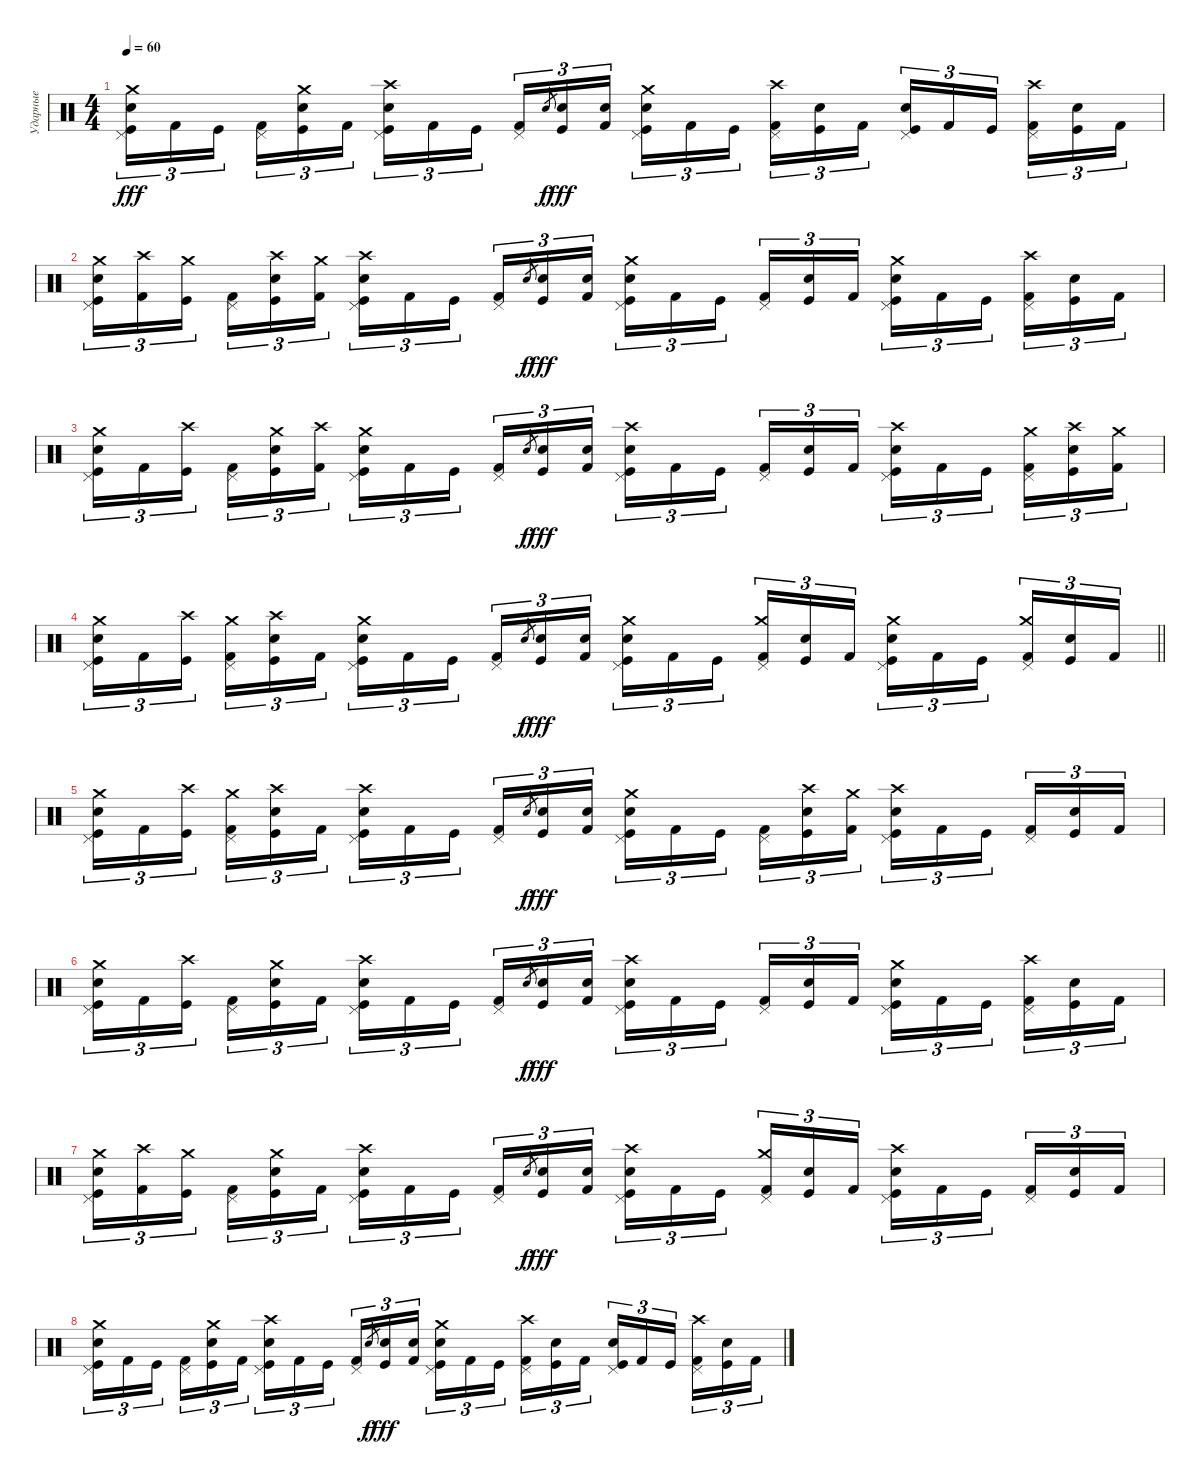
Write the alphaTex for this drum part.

\track ("Ударные" "Ударные") {instrument percussion}
\staff {score}
\articulation defaults
\ts (4 4)
\tempo 60
\clef neutral
\ks c
("Snare (hit) 2" "Kick (hit)" "Pedal Hi-Hat (hit)" "Crash medium (hit)").16{tu (3 2) dy fff} "Kick (hit) 2".16{tu (3 2)} "Kick (hit)".16{tu (3 2) beam splitsecondary} ("Kick (hit) 2" "Pedal Hi-Hat (hit)").16{tu (3 2)} ("Snare (hit) 2" "Kick (hit)" "Crash medium (hit)").16{tu (3 2)} "Kick (hit) 2".16{tu (3 2)} ("Snare (hit) 2" "Kick (hit)" "Pedal Hi-Hat (hit)" "Crash high (hit)").16{tu (3 2)} "Kick (hit) 2".16{tu (3 2)} "Kick (hit)".16{tu (3 2) beam splitsecondary} ("Kick (hit) 2" "Pedal Hi-Hat (hit)").16{tu (3 2)} "Electric Snare (hit)".8{gr dy f} ("Electric Snare (hit)" "Kick (hit)").16{tu (3 2) dy fff} ("Electric Snare (hit)" "Kick (hit) 2").16{tu (3 2)} ("Snare (hit) 2" "Kick (hit)" "Pedal Hi-Hat (hit)" "Crash medium (hit)").16{tu (3 2)} "Kick (hit) 2".16{tu (3 2)} "Kick (hit)".16{tu (3 2) beam splitsecondary} ("Kick (hit) 2" "Pedal Hi-Hat (hit)" "Crash high (hit)").16{tu (3 2)} ("Snare (hit) 2" "Kick (hit)").16{tu (3 2)} "Kick (hit) 2".16{tu (3 2)} ("Snare (hit) 2" "Kick (hit)" "Pedal Hi-Hat (hit)").16{tu (3 2)} "Kick (hit) 2".16{tu (3 2)} "Kick (hit)".16{tu (3 2) beam splitsecondary} ("Kick (hit) 2" "Pedal Hi-Hat (hit)" "Crash high (hit)").16{tu (3 2)} ("Snare (hit) 2" "Kick (hit)").16{tu (3 2)} "Kick (hit) 2".16{tu (3 2)} |
("Snare (hit) 2" "Kick (hit)" "Pedal Hi-Hat (hit)" "Crash medium (hit)").16{tu (3 2)} ("Kick (hit) 2" "Crash high (hit)").16{tu (3 2)} ("Kick (hit)" "Crash medium (hit)").16{tu (3 2) beam splitsecondary} ("Kick (hit) 2" "Pedal Hi-Hat (hit)").16{tu (3 2)} ("Snare (hit) 2" "Kick (hit)" "Crash high (hit)").16{tu (3 2)} ("Kick (hit) 2" "Crash medium (hit)").16{tu (3 2)} ("Snare (hit) 2" "Kick (hit)" "Pedal Hi-Hat (hit)" "Crash high (hit)").16{tu (3 2)} "Kick (hit) 2".16{tu (3 2)} "Kick (hit)".16{tu (3 2) beam splitsecondary} ("Kick (hit) 2" "Pedal Hi-Hat (hit)").16{tu (3 2)} "Electric Snare (hit)".8{gr dy f} ("Electric Snare (hit)" "Kick (hit)").16{tu (3 2) dy fff} ("Electric Snare (hit)" "Kick (hit) 2").16{tu (3 2)} ("Snare (hit) 2" "Kick (hit)" "Pedal Hi-Hat (hit)" "Crash medium (hit)").16{tu (3 2)} "Kick (hit) 2".16{tu (3 2)} "Kick (hit)".16{tu (3 2) beam splitsecondary} ("Kick (hit) 2" "Pedal Hi-Hat (hit)").16{tu (3 2)} ("Snare (hit) 2" "Kick (hit)").16{tu (3 2)} "Kick (hit) 2".16{tu (3 2)} ("Snare (hit) 2" "Kick (hit)" "Pedal Hi-Hat (hit)" "Crash medium (hit)").16{tu (3 2)} "Kick (hit) 2".16{tu (3 2)} "Kick (hit)".16{tu (3 2) beam splitsecondary} ("Kick (hit) 2" "Pedal Hi-Hat (hit)" "Crash high (hit)").16{tu (3 2)} ("Snare (hit) 2" "Kick (hit)").16{tu (3 2)} "Kick (hit) 2".16{tu (3 2)} |
("Snare (hit) 2" "Kick (hit)" "Pedal Hi-Hat (hit)" "Crash medium (hit)").16{tu (3 2)} "Kick (hit) 2".16{tu (3 2)} ("Kick (hit)" "Crash high (hit)").16{tu (3 2) beam splitsecondary} ("Kick (hit) 2" "Pedal Hi-Hat (hit)").16{tu (3 2)} ("Snare (hit) 2" "Kick (hit)" "Crash medium (hit)").16{tu (3 2)} ("Kick (hit) 2" "Crash high (hit)").16{tu (3 2)} ("Snare (hit) 2" "Kick (hit)" "Pedal Hi-Hat (hit)" "Crash medium (hit)").16{tu (3 2)} "Kick (hit) 2".16{tu (3 2)} "Kick (hit)".16{tu (3 2) beam splitsecondary} ("Kick (hit) 2" "Pedal Hi-Hat (hit)").16{tu (3 2)} "Electric Snare (hit)".8{gr dy f} ("Electric Snare (hit)" "Kick (hit)").16{tu (3 2) dy fff} ("Electric Snare (hit)" "Kick (hit) 2").16{tu (3 2)} ("Snare (hit) 2" "Kick (hit)" "Pedal Hi-Hat (hit)" "Crash high (hit)").16{tu (3 2)} "Kick (hit) 2".16{tu (3 2)} "Kick (hit)".16{tu (3 2) beam splitsecondary} ("Kick (hit) 2" "Pedal Hi-Hat (hit)").16{tu (3 2)} ("Snare (hit) 2" "Kick (hit)").16{tu (3 2)} "Kick (hit) 2".16{tu (3 2)} ("Snare (hit) 2" "Kick (hit)" "Pedal Hi-Hat (hit)" "Crash high (hit)").16{tu (3 2)} "Kick (hit) 2".16{tu (3 2)} "Kick (hit)".16{tu (3 2) beam splitsecondary} ("Kick (hit) 2" "Pedal Hi-Hat (hit)" "Crash medium (hit)").16{tu (3 2)} ("Snare (hit) 2" "Kick (hit)" "Crash high (hit)").16{tu (3 2)} ("Kick (hit) 2" "Crash medium (hit)").16{tu (3 2)} |
\barLineRight lightlight
("Snare (hit) 2" "Kick (hit)" "Pedal Hi-Hat (hit)" "Crash medium (hit)").16{tu (3 2)} "Kick (hit) 2".16{tu (3 2)} ("Kick (hit)" "Crash high (hit)").16{tu (3 2) beam splitsecondary} ("Kick (hit) 2" "Pedal Hi-Hat (hit)" "Crash medium (hit)").16{tu (3 2)} ("Snare (hit) 2" "Kick (hit)" "Crash high (hit)").16{tu (3 2)} "Kick (hit) 2".16{tu (3 2)} ("Snare (hit) 2" "Kick (hit)" "Pedal Hi-Hat (hit)" "Crash medium (hit)").16{tu (3 2)} "Kick (hit) 2".16{tu (3 2)} "Kick (hit)".16{tu (3 2) beam splitsecondary} ("Kick (hit) 2" "Pedal Hi-Hat (hit)").16{tu (3 2)} "Electric Snare (hit)".8{gr dy f} ("Electric Snare (hit)" "Kick (hit)").16{tu (3 2) dy fff} ("Electric Snare (hit)" "Kick (hit) 2").16{tu (3 2)} ("Snare (hit) 2" "Kick (hit)" "Pedal Hi-Hat (hit)" "Crash medium (hit)").16{tu (3 2)} "Kick (hit) 2".16{tu (3 2)} "Kick (hit)".16{tu (3 2) beam splitsecondary} ("Kick (hit) 2" "Pedal Hi-Hat (hit)" "Crash medium (hit)").16{tu (3 2)} ("Snare (hit) 2" "Kick (hit)").16{tu (3 2)} "Kick (hit) 2".16{tu (3 2)} ("Snare (hit) 2" "Kick (hit)" "Pedal Hi-Hat (hit)" "Crash medium (hit)").16{tu (3 2)} "Kick (hit) 2".16{tu (3 2)} "Kick (hit)".16{tu (3 2) beam splitsecondary} ("Kick (hit) 2" "Pedal Hi-Hat (hit)" "Crash medium (hit)").16{tu (3 2)} ("Snare (hit) 2" "Kick (hit)").16{tu (3 2)} "Kick (hit) 2".16{tu (3 2)} |
\section ("" "")
("Snare (hit) 2" "Kick (hit)" "Pedal Hi-Hat (hit)" "Crash medium (hit)").16{tu (3 2)} "Kick (hit) 2".16{tu (3 2)} ("Kick (hit)" "Crash high (hit)").16{tu (3 2) beam splitsecondary} ("Kick (hit) 2" "Pedal Hi-Hat (hit)" "Crash medium (hit)").16{tu (3 2)} ("Snare (hit) 2" "Kick (hit)" "Crash high (hit)").16{tu (3 2)} "Kick (hit) 2".16{tu (3 2)} ("Snare (hit) 2" "Kick (hit)" "Pedal Hi-Hat (hit)" "Crash high (hit)").16{tu (3 2)} "Kick (hit) 2".16{tu (3 2)} "Kick (hit)".16{tu (3 2) beam splitsecondary} ("Kick (hit) 2" "Pedal Hi-Hat (hit)").16{tu (3 2)} "Electric Snare (hit)".8{gr dy f} ("Electric Snare (hit)" "Kick (hit)").16{tu (3 2) dy fff} ("Electric Snare (hit)" "Kick (hit) 2").16{tu (3 2)} ("Snare (hit) 2" "Kick (hit)" "Pedal Hi-Hat (hit)" "Crash medium (hit)").16{tu (3 2)} "Kick (hit) 2".16{tu (3 2)} "Kick (hit)".16{tu (3 2) beam splitsecondary} ("Kick (hit) 2" "Pedal Hi-Hat (hit)").16{tu (3 2)} ("Snare (hit) 2" "Kick (hit)" "Crash high (hit)").16{tu (3 2)} ("Kick (hit) 2" "Crash medium (hit)").16{tu (3 2)} ("Snare (hit) 2" "Kick (hit)" "Pedal Hi-Hat (hit)" "Crash high (hit)").16{tu (3 2)} "Kick (hit) 2".16{tu (3 2)} "Kick (hit)".16{tu (3 2) beam splitsecondary} ("Kick (hit) 2" "Pedal Hi-Hat (hit)").16{tu (3 2)} ("Snare (hit) 2" "Kick (hit)").16{tu (3 2)} "Kick (hit) 2".16{tu (3 2)} |
("Snare (hit) 2" "Kick (hit)" "Pedal Hi-Hat (hit)" "Crash medium (hit)").16{tu (3 2)} "Kick (hit) 2".16{tu (3 2)} ("Kick (hit)" "Crash high (hit)").16{tu (3 2) beam splitsecondary} ("Kick (hit) 2" "Pedal Hi-Hat (hit)").16{tu (3 2)} ("Snare (hit) 2" "Kick (hit)" "Crash medium (hit)").16{tu (3 2)} "Kick (hit) 2".16{tu (3 2)} ("Snare (hit) 2" "Kick (hit)" "Pedal Hi-Hat (hit)" "Crash high (hit)").16{tu (3 2)} "Kick (hit) 2".16{tu (3 2)} "Kick (hit)".16{tu (3 2) beam splitsecondary} ("Kick (hit) 2" "Pedal Hi-Hat (hit)").16{tu (3 2)} "Electric Snare (hit)".8{gr dy f} ("Electric Snare (hit)" "Kick (hit)").16{tu (3 2) dy fff} ("Electric Snare (hit)" "Kick (hit) 2").16{tu (3 2)} ("Snare (hit) 2" "Kick (hit)" "Pedal Hi-Hat (hit)" "Crash high (hit)").16{tu (3 2)} "Kick (hit) 2".16{tu (3 2)} "Kick (hit)".16{tu (3 2) beam splitsecondary} ("Kick (hit) 2" "Pedal Hi-Hat (hit)").16{tu (3 2)} ("Snare (hit) 2" "Kick (hit)").16{tu (3 2)} "Kick (hit) 2".16{tu (3 2)} ("Snare (hit) 2" "Kick (hit)" "Pedal Hi-Hat (hit)" "Crash medium (hit)").16{tu (3 2)} "Kick (hit) 2".16{tu (3 2)} "Kick (hit)".16{tu (3 2) beam splitsecondary} ("Kick (hit) 2" "Pedal Hi-Hat (hit)" "Crash high (hit)").16{tu (3 2)} ("Snare (hit) 2" "Kick (hit)").16{tu (3 2)} "Kick (hit) 2".16{tu (3 2)} |
("Snare (hit) 2" "Kick (hit)" "Pedal Hi-Hat (hit)" "Crash medium (hit)").16{tu (3 2)} ("Kick (hit) 2" "Crash high (hit)").16{tu (3 2)} ("Kick (hit)" "Crash medium (hit)").16{tu (3 2) beam splitsecondary} ("Kick (hit) 2" "Pedal Hi-Hat (hit)").16{tu (3 2)} ("Snare (hit) 2" "Kick (hit)" "Crash medium (hit)").16{tu (3 2)} "Kick (hit) 2".16{tu (3 2)} ("Snare (hit) 2" "Kick (hit)" "Pedal Hi-Hat (hit)" "Crash high (hit)").16{tu (3 2)} "Kick (hit) 2".16{tu (3 2)} "Kick (hit)".16{tu (3 2) beam splitsecondary} ("Kick (hit) 2" "Pedal Hi-Hat (hit)").16{tu (3 2)} "Electric Snare (hit)".8{gr dy f} ("Electric Snare (hit)" "Kick (hit)").16{tu (3 2) dy fff} ("Electric Snare (hit)" "Kick (hit) 2").16{tu (3 2)} ("Snare (hit) 2" "Kick (hit)" "Pedal Hi-Hat (hit)" "Crash high (hit)").16{tu (3 2)} "Kick (hit) 2".16{tu (3 2)} "Kick (hit)".16{tu (3 2) beam splitsecondary} ("Kick (hit) 2" "Pedal Hi-Hat (hit)" "Crash medium (hit)").16{tu (3 2)} ("Snare (hit) 2" "Kick (hit)").16{tu (3 2)} "Kick (hit) 2".16{tu (3 2)} ("Snare (hit) 2" "Kick (hit)" "Pedal Hi-Hat (hit)" "Crash high (hit)").16{tu (3 2)} "Kick (hit) 2".16{tu (3 2)} "Kick (hit)".16{tu (3 2) beam splitsecondary} ("Kick (hit) 2" "Pedal Hi-Hat (hit)").16{tu (3 2)} ("Snare (hit) 2" "Kick (hit)").16{tu (3 2)} "Kick (hit) 2".16{tu (3 2)} |
("Snare (hit) 2" "Kick (hit)" "Pedal Hi-Hat (hit)" "Crash medium (hit)").16{tu (3 2)} "Kick (hit) 2".16{tu (3 2)} "Kick (hit)".16{tu (3 2) beam splitsecondary} ("Kick (hit) 2" "Pedal Hi-Hat (hit)").16{tu (3 2)} ("Snare (hit) 2" "Kick (hit)" "Crash medium (hit)").16{tu (3 2)} "Kick (hit) 2".16{tu (3 2)} ("Snare (hit) 2" "Kick (hit)" "Pedal Hi-Hat (hit)" "Crash high (hit)").16{tu (3 2)} "Kick (hit) 2".16{tu (3 2)} "Kick (hit)".16{tu (3 2) beam splitsecondary} ("Kick (hit) 2" "Pedal Hi-Hat (hit)").16{tu (3 2)} "Electric Snare (hit)".8{gr dy f} ("Electric Snare (hit)" "Kick (hit)").16{tu (3 2) dy fff} ("Electric Snare (hit)" "Kick (hit) 2").16{tu (3 2)} ("Snare (hit) 2" "Kick (hit)" "Pedal Hi-Hat (hit)" "Crash medium (hit)").16{tu (3 2)} "Kick (hit) 2".16{tu (3 2)} "Kick (hit)".16{tu (3 2) beam splitsecondary} ("Kick (hit) 2" "Pedal Hi-Hat (hit)" "Crash high (hit)").16{tu (3 2)} ("Snare (hit) 2" "Kick (hit)").16{tu (3 2)} "Kick (hit) 2".16{tu (3 2)} ("Snare (hit) 2" "Kick (hit)" "Pedal Hi-Hat (hit)").16{tu (3 2)} "Kick (hit) 2".16{tu (3 2)} "Kick (hit)".16{tu (3 2) beam splitsecondary} ("Kick (hit) 2" "Pedal Hi-Hat (hit)" "Crash high (hit)").16{tu (3 2)} ("Snare (hit) 2" "Kick (hit)").16{tu (3 2)} "Kick (hit) 2".16{tu (3 2)}
